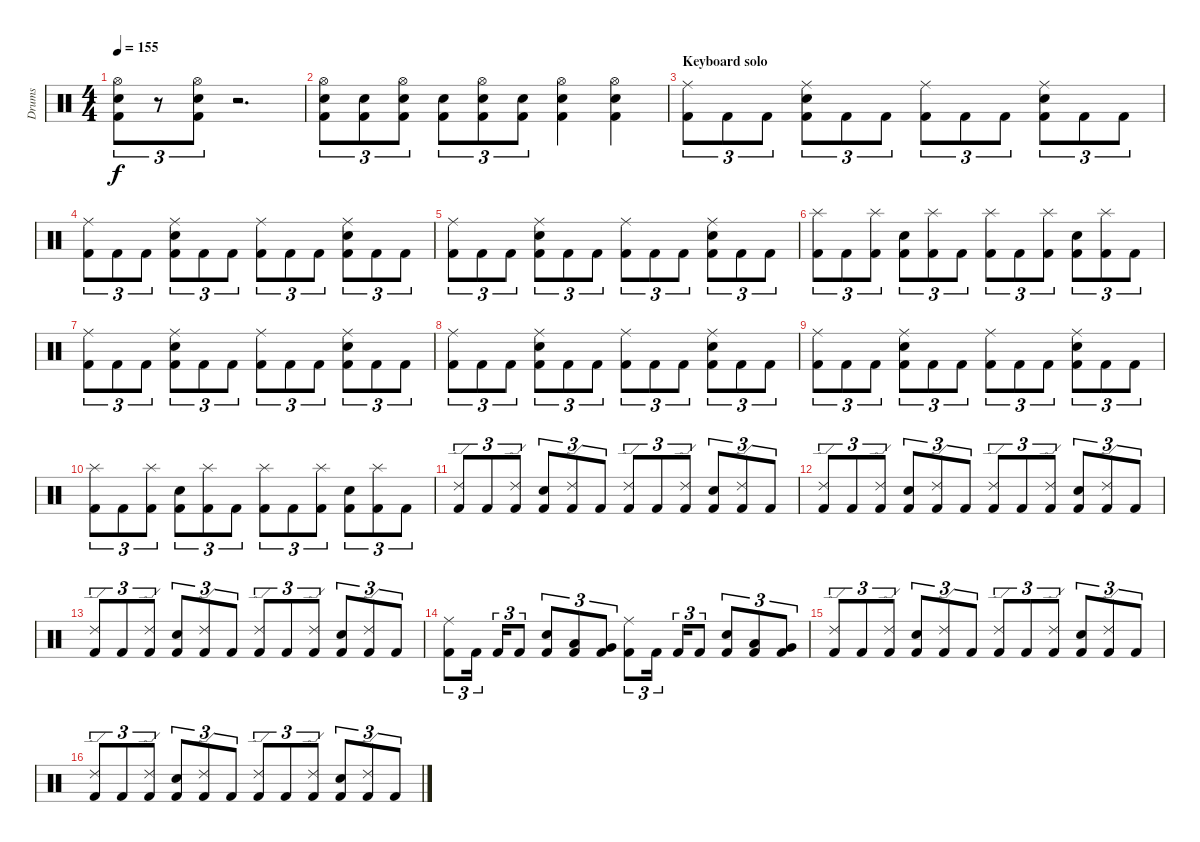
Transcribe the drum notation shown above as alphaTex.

\track ("Drums" "Drums") {instrument percussion}
\staff {score}
\articulation defaults
\ts (4 4)
\tempo 155
\clef neutral
\ks c
("Kick (hit) 2" "Electric Snare (hit)" "Hi-Hat (open)").8{tu (3 2) dy f} r.8{tu (3 2)} ("Kick (hit) 2" "Electric Snare (hit)" "Hi-Hat (open)").8{tu (3 2)} r.2{d} |
("Kick (hit) 2" "Electric Snare (hit)" "Hi-Hat (open)").8{tu (3 2)} ("Kick (hit) 2" "Electric Snare (hit)").8{tu (3 2)} ("Kick (hit) 2" "Electric Snare (hit)" "Hi-Hat (open)").8{tu (3 2)} ("Kick (hit) 2" "Electric Snare (hit)").8{tu (3 2)} ("Kick (hit) 2" "Electric Snare (hit)" "Hi-Hat (open)").8{tu (3 2)} ("Kick (hit) 2" "Electric Snare (hit)").8{tu (3 2)} ("Kick (hit) 2" "Electric Snare (hit)" "Hi-Hat (open)").4 ("Kick (hit) 2" "Electric Snare (hit)" "Hi-Hat (open)").4 |
\section ("" "Keyboard solo")
("Kick (hit) 2" "Ride (middle)").8{tu (3 2)} "Kick (hit) 2".8{tu (3 2)} "Kick (hit) 2".8{tu (3 2)} ("Kick (hit) 2" "Electric Snare (hit)" "Ride (middle)").8{tu (3 2)} "Kick (hit) 2".8{tu (3 2)} "Kick (hit) 2".8{tu (3 2)} ("Kick (hit) 2" "Ride (middle)").8{tu (3 2)} "Kick (hit) 2".8{tu (3 2)} "Kick (hit) 2".8{tu (3 2)} ("Kick (hit) 2" "Electric Snare (hit)" "Ride (middle)").8{tu (3 2)} "Kick (hit) 2".8{tu (3 2)} "Kick (hit) 2".8{tu (3 2)} |
("Kick (hit) 2" "Ride (middle)").8{tu (3 2)} "Kick (hit) 2".8{tu (3 2)} "Kick (hit) 2".8{tu (3 2)} ("Kick (hit) 2" "Electric Snare (hit)" "Ride (middle)").8{tu (3 2)} "Kick (hit) 2".8{tu (3 2)} "Kick (hit) 2".8{tu (3 2)} ("Kick (hit) 2" "Ride (middle)").8{tu (3 2)} "Kick (hit) 2".8{tu (3 2)} "Kick (hit) 2".8{tu (3 2)} ("Kick (hit) 2" "Electric Snare (hit)" "Ride (middle)").8{tu (3 2)} "Kick (hit) 2".8{tu (3 2)} "Kick (hit) 2".8{tu (3 2)} |
("Kick (hit) 2" "Ride (middle)").8{tu (3 2)} "Kick (hit) 2".8{tu (3 2)} "Kick (hit) 2".8{tu (3 2)} ("Kick (hit) 2" "Electric Snare (hit)" "Ride (middle)").8{tu (3 2)} "Kick (hit) 2".8{tu (3 2)} "Kick (hit) 2".8{tu (3 2)} ("Kick (hit) 2" "Ride (middle)").8{tu (3 2)} "Kick (hit) 2".8{tu (3 2)} "Kick (hit) 2".8{tu (3 2)} ("Kick (hit) 2" "Electric Snare (hit)" "Ride (middle)").8{tu (3 2)} "Kick (hit) 2".8{tu (3 2)} "Kick (hit) 2".8{tu (3 2)} |
("Kick (hit) 2" "Splash (hit)").8{tu (3 2)} "Kick (hit) 2".8{tu (3 2)} ("Kick (hit) 2" "Splash (hit)").8{tu (3 2)} ("Kick (hit) 2" "Electric Snare (hit)").8{tu (3 2)} ("Kick (hit) 2" "Splash (hit)").8{tu (3 2)} "Kick (hit) 2".8{tu (3 2)} ("Kick (hit) 2" "Splash (hit)").8{tu (3 2)} "Kick (hit) 2".8{tu (3 2)} ("Kick (hit) 2" "Splash (hit)").8{tu (3 2)} ("Kick (hit) 2" "Electric Snare (hit)").8{tu (3 2)} ("Kick (hit) 2" "Splash (hit)").8{tu (3 2)} "Kick (hit) 2".8{tu (3 2)} |
("Kick (hit) 2" "Ride (middle)").8{tu (3 2)} "Kick (hit) 2".8{tu (3 2)} "Kick (hit) 2".8{tu (3 2)} ("Kick (hit) 2" "Electric Snare (hit)" "Ride (middle)").8{tu (3 2)} "Kick (hit) 2".8{tu (3 2)} "Kick (hit) 2".8{tu (3 2)} ("Kick (hit) 2" "Ride (middle)").8{tu (3 2)} "Kick (hit) 2".8{tu (3 2)} "Kick (hit) 2".8{tu (3 2)} ("Kick (hit) 2" "Electric Snare (hit)" "Ride (middle)").8{tu (3 2)} "Kick (hit) 2".8{tu (3 2)} "Kick (hit) 2".8{tu (3 2)} |
("Kick (hit) 2" "Ride (middle)").8{tu (3 2)} "Kick (hit) 2".8{tu (3 2)} "Kick (hit) 2".8{tu (3 2)} ("Kick (hit) 2" "Electric Snare (hit)" "Ride (middle)").8{tu (3 2)} "Kick (hit) 2".8{tu (3 2)} "Kick (hit) 2".8{tu (3 2)} ("Kick (hit) 2" "Ride (middle)").8{tu (3 2)} "Kick (hit) 2".8{tu (3 2)} "Kick (hit) 2".8{tu (3 2)} ("Kick (hit) 2" "Electric Snare (hit)" "Ride (middle)").8{tu (3 2)} "Kick (hit) 2".8{tu (3 2)} "Kick (hit) 2".8{tu (3 2)} |
("Kick (hit) 2" "Ride (middle)").8{tu (3 2)} "Kick (hit) 2".8{tu (3 2)} "Kick (hit) 2".8{tu (3 2)} ("Kick (hit) 2" "Electric Snare (hit)" "Ride (middle)").8{tu (3 2)} "Kick (hit) 2".8{tu (3 2)} "Kick (hit) 2".8{tu (3 2)} ("Kick (hit) 2" "Ride (middle)").8{tu (3 2)} "Kick (hit) 2".8{tu (3 2)} "Kick (hit) 2".8{tu (3 2)} ("Kick (hit) 2" "Electric Snare (hit)" "Ride (middle)").8{tu (3 2)} "Kick (hit) 2".8{tu (3 2)} "Kick (hit) 2".8{tu (3 2)} |
("Kick (hit) 2" "Splash (hit)").8{tu (3 2)} "Kick (hit) 2".8{tu (3 2)} ("Kick (hit) 2" "Splash (hit)").8{tu (3 2)} ("Kick (hit) 2" "Electric Snare (hit)").8{tu (3 2)} ("Kick (hit) 2" "Splash (hit)").8{tu (3 2)} "Kick (hit) 2".8{tu (3 2)} ("Kick (hit) 2" "Splash (hit)").8{tu (3 2)} "Kick (hit) 2".8{tu (3 2)} ("Kick (hit) 2" "Splash (hit)").8{tu (3 2)} ("Kick (hit) 2" "Electric Snare (hit)").8{tu (3 2)} ("Kick (hit) 2" "Splash (hit)").8{tu (3 2)} "Kick (hit) 2".8{tu (3 2)} |
("Kick (hit) 2" "Ride (edge) 2").8{tu (3 2)} "Kick (hit) 2".8{tu (3 2)} ("Kick (hit) 2" "Ride (edge) 2").8{tu (3 2)} ("Kick (hit) 2" "Electric Snare (hit)").8{tu (3 2)} ("Kick (hit) 2" "Ride (edge) 2").8{tu (3 2)} "Kick (hit) 2".8{tu (3 2)} ("Kick (hit) 2" "Ride (edge) 2").8{tu (3 2)} "Kick (hit) 2".8{tu (3 2)} ("Kick (hit) 2" "Ride (edge) 2").8{tu (3 2)} ("Kick (hit) 2" "Electric Snare (hit)").8{tu (3 2)} ("Kick (hit) 2" "Ride (edge) 2").8{tu (3 2)} "Kick (hit) 2".8{tu (3 2)} |
("Kick (hit) 2" "Ride (edge) 2").8{tu (3 2)} "Kick (hit) 2".8{tu (3 2)} ("Kick (hit) 2" "Ride (edge) 2").8{tu (3 2)} ("Kick (hit) 2" "Electric Snare (hit)").8{tu (3 2)} ("Kick (hit) 2" "Ride (edge) 2").8{tu (3 2)} "Kick (hit) 2".8{tu (3 2)} ("Kick (hit) 2" "Ride (edge) 2").8{tu (3 2)} "Kick (hit) 2".8{tu (3 2)} ("Kick (hit) 2" "Ride (edge) 2").8{tu (3 2)} ("Kick (hit) 2" "Electric Snare (hit)").8{tu (3 2)} ("Kick (hit) 2" "Ride (edge) 2").8{tu (3 2)} "Kick (hit) 2".8{tu (3 2)} |
("Kick (hit) 2" "Ride (edge) 2").8{tu (3 2)} "Kick (hit) 2".8{tu (3 2)} ("Kick (hit) 2" "Ride (edge) 2").8{tu (3 2)} ("Kick (hit) 2" "Electric Snare (hit)").8{tu (3 2)} ("Kick (hit) 2" "Ride (edge) 2").8{tu (3 2)} "Kick (hit) 2".8{tu (3 2)} ("Kick (hit) 2" "Ride (edge) 2").8{tu (3 2)} "Kick (hit) 2".8{tu (3 2)} ("Kick (hit) 2" "Ride (edge) 2").8{tu (3 2)} ("Kick (hit) 2" "Electric Snare (hit)").8{tu (3 2)} ("Kick (hit) 2" "Ride (edge) 2").8{tu (3 2)} "Kick (hit) 2".8{tu (3 2)} |
("Kick (hit) 2" "Ride (middle)").8{tu (3 2)} "Kick (hit) 2".16{tu (3 2)} "Kick (hit) 2".16{tu (3 2)} "Kick (hit) 2".8{tu (3 2)} ("Kick (hit) 2" "Electric Snare (hit)").8{tu (3 2)} ("Kick (hit) 2" "Low Tom (hit)").8{tu (3 2)} ("Kick (hit) 2" "Very Low Tom (hit)").8{tu (3 2)} ("Kick (hit) 2" "Ride (middle)").8{tu (3 2)} "Kick (hit) 2".16{tu (3 2)} "Kick (hit) 2".16{tu (3 2)} "Kick (hit) 2".8{tu (3 2)} ("Kick (hit) 2" "Electric Snare (hit)").8{tu (3 2)} ("Kick (hit) 2" "Low Tom (hit)").8{tu (3 2)} ("Kick (hit) 2" "Very Low Tom (hit)").8{tu (3 2)} |
("Kick (hit) 2" "Ride (edge) 2").8{tu (3 2)} "Kick (hit) 2".8{tu (3 2)} ("Kick (hit) 2" "Ride (edge) 2").8{tu (3 2)} ("Kick (hit) 2" "Electric Snare (hit)").8{tu (3 2)} ("Kick (hit) 2" "Ride (edge) 2").8{tu (3 2)} "Kick (hit) 2".8{tu (3 2)} ("Kick (hit) 2" "Ride (edge) 2").8{tu (3 2)} "Kick (hit) 2".8{tu (3 2)} ("Kick (hit) 2" "Ride (edge) 2").8{tu (3 2)} ("Kick (hit) 2" "Electric Snare (hit)").8{tu (3 2)} ("Kick (hit) 2" "Ride (edge) 2").8{tu (3 2)} "Kick (hit) 2".8{tu (3 2)} |
("Kick (hit) 2" "Ride (edge) 2").8{tu (3 2)} "Kick (hit) 2".8{tu (3 2)} ("Kick (hit) 2" "Ride (edge) 2").8{tu (3 2)} ("Kick (hit) 2" "Electric Snare (hit)").8{tu (3 2)} ("Kick (hit) 2" "Ride (edge) 2").8{tu (3 2)} "Kick (hit) 2".8{tu (3 2)} ("Kick (hit) 2" "Ride (edge) 2").8{tu (3 2)} "Kick (hit) 2".8{tu (3 2)} ("Kick (hit) 2" "Ride (edge) 2").8{tu (3 2)} ("Kick (hit) 2" "Electric Snare (hit)").8{tu (3 2)} ("Kick (hit) 2" "Ride (edge) 2").8{tu (3 2)} "Kick (hit) 2".8{tu (3 2)}
